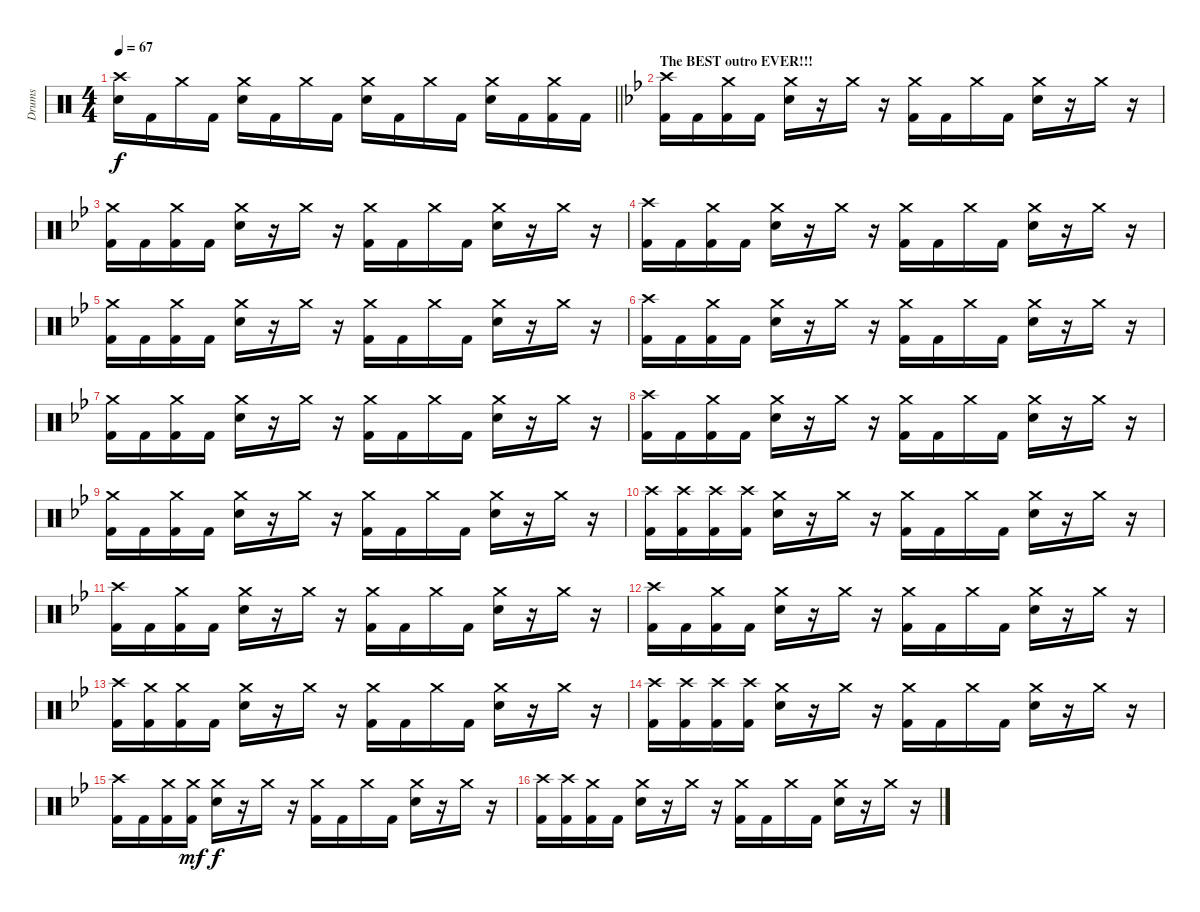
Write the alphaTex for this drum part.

\track ("Drums" "Drums") {instrument percussion}
\staff {score}
\articulation defaults
\ts (4 4)
\tempo 67
\clef neutral
\barLineRight lightlight
\ks c
("Crash high (hit)" "Electric Snare (hit)").16{dy f} "Kick (hit) 2".16 "Crash medium (hit)".16 "Kick (hit) 2".16 ("Crash medium (hit)" "Electric Snare (hit)").16 "Kick (hit) 2".16 "Crash medium (hit)".16 "Kick (hit) 2".16 ("Crash medium (hit)" "Electric Snare (hit)").16 "Kick (hit) 2".16 "Crash medium (hit)".16 "Kick (hit) 2".16 ("Crash medium (hit)" "Electric Snare (hit)").16 "Kick (hit) 2".16 ("Crash medium (hit)" "Kick (hit) 2").16 "Kick (hit) 2".16 |
\section ("" "The BEST outro EVER!!!")
\ks bb
("Crash high (hit)" "Kick (hit) 2").16 "Kick (hit) 2".16 ("Crash medium (hit)" "Kick (hit) 2").16 "Kick (hit) 2".16 ("Crash medium (hit)" "Electric Snare (hit)").16 r.16 "Crash medium (hit)".16 r.16 ("Crash medium (hit)" "Kick (hit) 2").16 "Kick (hit) 2".16 "Crash medium (hit)".16 "Kick (hit) 2".16 ("Crash medium (hit)" "Electric Snare (hit)").16 r.16 "Crash medium (hit)".16 r.16 |
("Crash medium (hit)" "Kick (hit) 2").16 "Kick (hit) 2".16 ("Crash medium (hit)" "Kick (hit) 2").16 "Kick (hit) 2".16 ("Crash medium (hit)" "Electric Snare (hit)").16 r.16 "Crash medium (hit)".16 r.16 ("Crash medium (hit)" "Kick (hit) 2").16 "Kick (hit) 2".16 "Crash medium (hit)".16 "Kick (hit) 2".16 ("Crash medium (hit)" "Electric Snare (hit)").16 r.16 "Crash medium (hit)".16 r.16 |
("Crash high (hit)" "Kick (hit) 2").16 "Kick (hit) 2".16 ("Crash medium (hit)" "Kick (hit) 2").16 "Kick (hit) 2".16 ("Crash medium (hit)" "Electric Snare (hit)").16 r.16 "Crash medium (hit)".16 r.16 ("Crash medium (hit)" "Kick (hit) 2").16 "Kick (hit) 2".16 "Crash medium (hit)".16 "Kick (hit) 2".16 ("Crash medium (hit)" "Electric Snare (hit)").16 r.16 "Crash medium (hit)".16 r.16 |
("Crash medium (hit)" "Kick (hit) 2").16 "Kick (hit) 2".16 ("Crash medium (hit)" "Kick (hit) 2").16 "Kick (hit) 2".16 ("Crash medium (hit)" "Electric Snare (hit)").16 r.16 "Crash medium (hit)".16 r.16 ("Crash medium (hit)" "Kick (hit) 2").16 "Kick (hit) 2".16 "Crash medium (hit)".16 "Kick (hit) 2".16 ("Crash medium (hit)" "Electric Snare (hit)").16 r.16 "Crash medium (hit)".16 r.16 |
("Crash high (hit)" "Kick (hit) 2").16 "Kick (hit) 2".16 ("Crash medium (hit)" "Kick (hit) 2").16 "Kick (hit) 2".16 ("Crash medium (hit)" "Electric Snare (hit)").16 r.16 "Crash medium (hit)".16 r.16 ("Crash medium (hit)" "Kick (hit) 2").16 "Kick (hit) 2".16 "Crash medium (hit)".16 "Kick (hit) 2".16 ("Crash medium (hit)" "Electric Snare (hit)").16 r.16 "Crash medium (hit)".16 r.16 |
("Crash medium (hit)" "Kick (hit) 2").16 "Kick (hit) 2".16 ("Crash medium (hit)" "Kick (hit) 2").16 "Kick (hit) 2".16 ("Crash medium (hit)" "Electric Snare (hit)").16 r.16 "Crash medium (hit)".16 r.16 ("Crash medium (hit)" "Kick (hit) 2").16 "Kick (hit) 2".16 "Crash medium (hit)".16 "Kick (hit) 2".16 ("Crash medium (hit)" "Electric Snare (hit)").16 r.16 "Crash medium (hit)".16 r.16 |
("Crash high (hit)" "Kick (hit) 2").16 "Kick (hit) 2".16 ("Crash medium (hit)" "Kick (hit) 2").16 "Kick (hit) 2".16 ("Crash medium (hit)" "Electric Snare (hit)").16 r.16 "Crash medium (hit)".16 r.16 ("Crash medium (hit)" "Kick (hit) 2").16 "Kick (hit) 2".16 "Crash medium (hit)".16 "Kick (hit) 2".16 ("Crash medium (hit)" "Electric Snare (hit)").16 r.16 "Crash medium (hit)".16 r.16 |
("Crash medium (hit)" "Kick (hit) 2").16 "Kick (hit) 2".16 ("Crash medium (hit)" "Kick (hit) 2").16 "Kick (hit) 2".16 ("Crash medium (hit)" "Electric Snare (hit)").16 r.16 "Crash medium (hit)".16 r.16 ("Crash medium (hit)" "Kick (hit) 2").16 "Kick (hit) 2".16 "Crash medium (hit)".16 "Kick (hit) 2".16 ("Crash medium (hit)" "Electric Snare (hit)").16 r.16 "Crash medium (hit)".16 r.16 |
("Crash high (hit)" "Kick (hit) 2").16 ("Crash high (hit)" "Kick (hit) 2").16 ("Crash high (hit)" "Kick (hit) 2").16 ("Crash high (hit)" "Kick (hit) 2").16 ("Crash medium (hit)" "Electric Snare (hit)").16 r.16 "Crash medium (hit)".16 r.16 ("Crash medium (hit)" "Kick (hit) 2").16 "Kick (hit) 2".16 "Crash medium (hit)".16 "Kick (hit) 2".16 ("Crash medium (hit)" "Electric Snare (hit)").16 r.16 "Crash medium (hit)".16 r.16 |
("Crash high (hit)" "Kick (hit) 2").16 "Kick (hit) 2".16 ("Crash medium (hit)" "Kick (hit) 2").16 "Kick (hit) 2".16 ("Crash medium (hit)" "Electric Snare (hit)").16 r.16 "Crash medium (hit)".16 r.16 ("Crash medium (hit)" "Kick (hit) 2").16 "Kick (hit) 2".16 "Crash medium (hit)".16 "Kick (hit) 2".16 ("Crash medium (hit)" "Electric Snare (hit)").16 r.16 "Crash medium (hit)".16 r.16 |
("Crash high (hit)" "Kick (hit) 2").16 "Kick (hit) 2".16 ("Crash medium (hit)" "Kick (hit) 2").16 "Kick (hit) 2".16 ("Crash medium (hit)" "Electric Snare (hit)").16 r.16 "Crash medium (hit)".16 r.16 ("Crash medium (hit)" "Kick (hit) 2").16 "Kick (hit) 2".16 "Crash medium (hit)".16 "Kick (hit) 2".16 ("Crash medium (hit)" "Electric Snare (hit)").16 r.16 "Crash medium (hit)".16 r.16 |
("Crash high (hit)" "Kick (hit) 2").16 ("Crash medium (hit)" "Kick (hit) 2").16 ("Crash medium (hit)" "Kick (hit) 2").16 "Kick (hit) 2".16 ("Crash medium (hit)" "Electric Snare (hit)").16 r.16 "Crash medium (hit)".16 r.16 ("Crash medium (hit)" "Kick (hit) 2").16 "Kick (hit) 2".16 "Crash medium (hit)".16 "Kick (hit) 2".16 ("Crash medium (hit)" "Electric Snare (hit)").16 r.16 "Crash medium (hit)".16 r.16 |
("Crash high (hit)" "Kick (hit) 2").16 ("Crash high (hit)" "Kick (hit) 2").16 ("Crash high (hit)" "Kick (hit) 2").16 ("Crash high (hit)" "Kick (hit) 2").16 ("Crash medium (hit)" "Electric Snare (hit)").16 r.16 "Crash medium (hit)".16 r.16 ("Crash medium (hit)" "Kick (hit) 2").16 "Kick (hit) 2".16 "Crash medium (hit)".16 "Kick (hit) 2".16 ("Crash medium (hit)" "Electric Snare (hit)").16 r.16 "Crash medium (hit)".16 r.16 |
("Crash high (hit)" "Kick (hit) 2").16 "Kick (hit) 2".16 ("Crash medium (hit)" "Kick (hit) 2").16 ("Crash medium (hit)" "Kick (hit) 2").16{dy mf} ("Crash medium (hit)" "Electric Snare (hit)").16{dy f} r.16 "Crash medium (hit)".16 r.16 ("Crash medium (hit)" "Kick (hit) 2").16 "Kick (hit) 2".16 "Crash medium (hit)".16 "Kick (hit) 2".16 ("Crash medium (hit)" "Electric Snare (hit)").16 r.16 "Crash medium (hit)".16 r.16 |
("Crash high (hit)" "Kick (hit) 2").16 ("Crash high (hit)" "Kick (hit) 2").16 ("Crash medium (hit)" "Kick (hit) 2").16 "Kick (hit) 2".16 ("Crash medium (hit)" "Electric Snare (hit)").16 r.16 "Crash medium (hit)".16 r.16 ("Crash medium (hit)" "Kick (hit) 2").16 "Kick (hit) 2".16 "Crash medium (hit)".16 "Kick (hit) 2".16 ("Crash medium (hit)" "Electric Snare (hit)").16 r.16 "Crash medium (hit)".16 r.16
